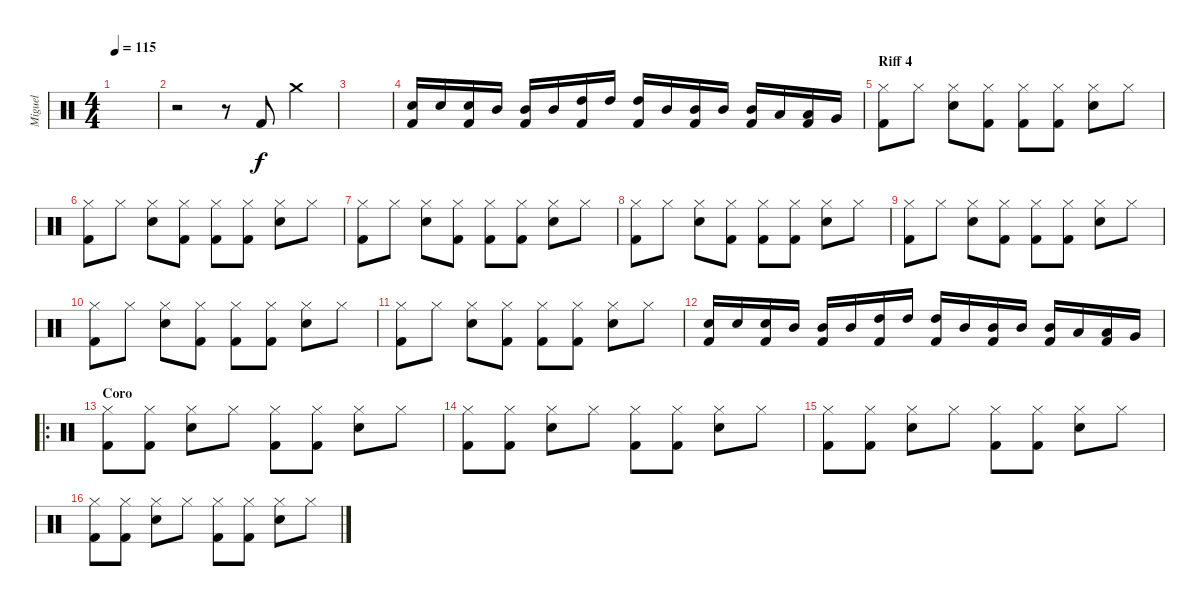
\track ("Miguel" "Miguel") {instrument percussion}
\staff {score}
\articulation defaults
\ts (4 4)
\tempo 115
\clef neutral
\ks c
|
r.2 r.8 "Kick (hit) 2".8 "Crash medium (hit)".4 |
|
("Electric Snare (hit)" "Kick (hit) 2").16 "Electric Snare (hit)".16 ("Electric Snare (hit)" "Kick (hit) 2").16 "Mid Tom (hit)".16 ("Mid Tom (hit)" "Kick (hit) 2").16 "Mid Tom (hit)".16 ("High Tom (hit)" "Kick (hit) 2").16 "High Tom (hit)".16 ("High Tom (hit)" "Kick (hit) 2").16 "Mid Tom (hit)".16 ("Mid Tom (hit)" "Kick (hit) 2").16 "Mid Tom (hit)".16 ("Mid Tom (hit)" "Kick (hit) 2").16 "Low Tom (hit)".16 ("Low Tom (hit)" "Kick (hit) 2").16 "Very Low Tom (hit)".16 |
\section ("" "Riff 4")
("Hi-Hat (closed)" "Kick (hit) 2").8 "Hi-Hat (closed)".8 ("Hi-Hat (closed)" "Snare (hit) 2").8 ("Hi-Hat (closed)" "Kick (hit) 2").8 ("Hi-Hat (closed)" "Kick (hit) 2").8 ("Hi-Hat (closed)" "Kick (hit) 2").8 ("Hi-Hat (closed)" "Snare (hit) 2").8 "Hi-Hat (closed)".8 |
("Hi-Hat (closed)" "Kick (hit) 2").8 "Hi-Hat (closed)".8 ("Hi-Hat (closed)" "Snare (hit) 2").8 ("Hi-Hat (closed)" "Kick (hit) 2").8 ("Hi-Hat (closed)" "Kick (hit) 2").8 ("Hi-Hat (closed)" "Kick (hit) 2").8 ("Hi-Hat (closed)" "Snare (hit) 2").8 "Hi-Hat (closed)".8 |
("Hi-Hat (closed)" "Kick (hit) 2").8 "Hi-Hat (closed)".8 ("Hi-Hat (closed)" "Snare (hit) 2").8 ("Hi-Hat (closed)" "Kick (hit) 2").8 ("Hi-Hat (closed)" "Kick (hit) 2").8 ("Hi-Hat (closed)" "Kick (hit) 2").8 ("Hi-Hat (closed)" "Snare (hit) 2").8 "Hi-Hat (closed)".8 |
("Hi-Hat (closed)" "Kick (hit) 2").8 "Hi-Hat (closed)".8 ("Hi-Hat (closed)" "Snare (hit) 2").8 ("Hi-Hat (closed)" "Kick (hit) 2").8 ("Hi-Hat (closed)" "Kick (hit) 2").8 ("Hi-Hat (closed)" "Kick (hit) 2").8 ("Hi-Hat (closed)" "Snare (hit) 2").8 "Hi-Hat (closed)".8 |
("Hi-Hat (closed)" "Kick (hit) 2").8 "Hi-Hat (closed)".8 ("Hi-Hat (closed)" "Snare (hit) 2").8 ("Hi-Hat (closed)" "Kick (hit) 2").8 ("Hi-Hat (closed)" "Kick (hit) 2").8 ("Hi-Hat (closed)" "Kick (hit) 2").8 ("Hi-Hat (closed)" "Snare (hit) 2").8 "Hi-Hat (closed)".8 |
("Hi-Hat (closed)" "Kick (hit) 2").8 "Hi-Hat (closed)".8 ("Hi-Hat (closed)" "Snare (hit) 2").8 ("Hi-Hat (closed)" "Kick (hit) 2").8 ("Hi-Hat (closed)" "Kick (hit) 2").8 ("Hi-Hat (closed)" "Kick (hit) 2").8 ("Hi-Hat (closed)" "Snare (hit) 2").8 "Hi-Hat (closed)".8 |
("Hi-Hat (closed)" "Kick (hit) 2").8 "Hi-Hat (closed)".8 ("Hi-Hat (closed)" "Snare (hit) 2").8 ("Hi-Hat (closed)" "Kick (hit) 2").8 ("Hi-Hat (closed)" "Kick (hit) 2").8 ("Hi-Hat (closed)" "Kick (hit) 2").8 ("Hi-Hat (closed)" "Snare (hit) 2").8 "Hi-Hat (closed)".8 |
("Electric Snare (hit)" "Kick (hit) 2").16 "Electric Snare (hit)".16 ("Electric Snare (hit)" "Kick (hit) 2").16 "Mid Tom (hit)".16 ("Mid Tom (hit)" "Kick (hit) 2").16 "Mid Tom (hit)".16 ("High Tom (hit)" "Kick (hit) 2").16 "High Tom (hit)".16 ("High Tom (hit)" "Kick (hit) 2").16 "Mid Tom (hit)".16 ("Mid Tom (hit)" "Kick (hit) 2").16 "Mid Tom (hit)".16 ("Mid Tom (hit)" "Kick (hit) 2").16 "Low Tom (hit)".16 ("Low Tom (hit)" "Kick (hit) 2").16 "Very Low Tom (hit)".16 |
\ro
\section ("" "Coro")
("Hi-Hat (closed)" "Kick (hit) 2").8 ("Hi-Hat (closed)" "Kick (hit) 2").8 ("Hi-Hat (closed)" "Snare (hit) 2").8 "Hi-Hat (closed)".8 ("Hi-Hat (closed)" "Kick (hit) 2").8 ("Hi-Hat (closed)" "Kick (hit) 2").8 ("Hi-Hat (closed)" "Snare (hit) 2").8 "Hi-Hat (closed)".8 |
("Hi-Hat (closed)" "Kick (hit) 2").8 ("Hi-Hat (closed)" "Kick (hit) 2").8 ("Hi-Hat (closed)" "Snare (hit) 2").8 "Hi-Hat (closed)".8 ("Hi-Hat (closed)" "Kick (hit) 2").8 ("Hi-Hat (closed)" "Kick (hit) 2").8 ("Hi-Hat (closed)" "Snare (hit) 2").8 "Hi-Hat (closed)".8 |
("Hi-Hat (closed)" "Kick (hit) 2").8 ("Hi-Hat (closed)" "Kick (hit) 2").8 ("Hi-Hat (closed)" "Snare (hit) 2").8 "Hi-Hat (closed)".8 ("Hi-Hat (closed)" "Kick (hit) 2").8 ("Hi-Hat (closed)" "Kick (hit) 2").8 ("Hi-Hat (closed)" "Snare (hit) 2").8 "Hi-Hat (closed)".8 |
("Hi-Hat (closed)" "Kick (hit) 2").8 ("Hi-Hat (closed)" "Kick (hit) 2").8 ("Hi-Hat (closed)" "Snare (hit) 2").8 "Hi-Hat (closed)".8 ("Hi-Hat (closed)" "Kick (hit) 2").8 ("Hi-Hat (closed)" "Kick (hit) 2").8 ("Hi-Hat (closed)" "Snare (hit) 2").8 "Hi-Hat (closed)".8
